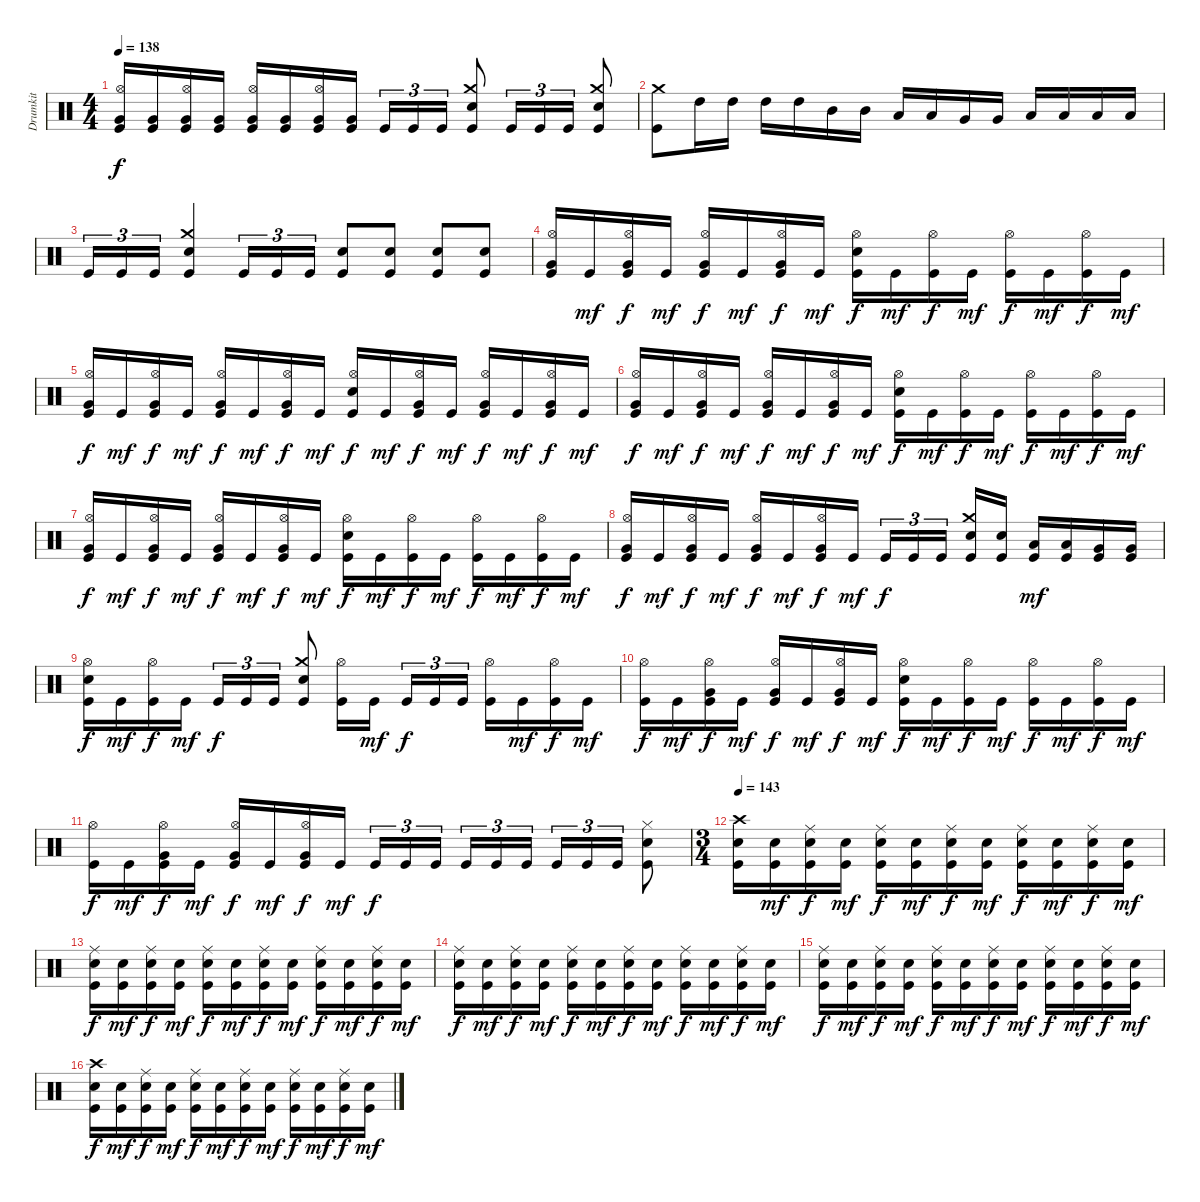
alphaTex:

\track ("Drumkit" "Drumkit") {instrument percussion}
\staff {score}
\articulation defaults
\ts (4 4)
\tempo 138
\clef neutral
\ks c
("Kick (hit)" "Hi-Hat (open)" "Very Low Tom (hit)").16{dy f} ("Kick (hit)" "Very Low Tom (hit)").16 ("Kick (hit)" "Hi-Hat (open)" "Very Low Tom (hit)").16 ("Kick (hit)" "Very Low Tom (hit)").16 ("Kick (hit)" "Very Low Tom (hit)" "Hi-Hat (open)").16 ("Kick (hit)" "Very Low Tom (hit)").16 ("Kick (hit)" "Very Low Tom (hit)" "Hi-Hat (open)").16 ("Kick (hit)" "Very Low Tom (hit)").16 "Kick (hit)".16{tu (3 2)} "Kick (hit)".16{tu (3 2)} "Kick (hit)".16{tu (3 2)} ("Crash medium (hit)" "Snare (hit) 2" "Kick (hit)").8 "Kick (hit)".16{tu (3 2)} "Kick (hit)".16{tu (3 2)} "Kick (hit)".16{tu (3 2)} ("Crash medium (hit)" "Snare (hit) 2" "Kick (hit)").8 |
("Crash medium (hit)" "Kick (hit)").8 "High Tom (hit)".16 "High Tom (hit)".16 "High Tom (hit)".16 "High Tom (hit)".16 "Mid Tom (hit)".16 "Mid Tom (hit)".16 "Low Tom (hit)".16 "Low Tom (hit)".16 "Very Low Tom (hit)".16 "Very Low Tom (hit)".16 "Low Floor Tom (hit)".16 "Low Floor Tom (hit)".16 "Low Floor Tom (hit)".16 "Low Floor Tom (hit)".16 |
"Kick (hit)".16{tu (3 2)} "Kick (hit)".16{tu (3 2)} "Kick (hit)".16{tu (3 2)} ("Crash medium (hit)" "Snare (hit) 2" "Kick (hit)").4 "Kick (hit)".16{tu (3 2)} "Kick (hit)".16{tu (3 2)} "Kick (hit)".16{tu (3 2)} ("Snare (hit) 2" "Kick (hit)").8 ("Snare (hit) 2" "Kick (hit)").8 ("Snare (hit) 2" "Kick (hit)").8 ("Snare (hit) 2" "Kick (hit)").8 |
("Kick (hit)" "Hi-Hat (open)" "Very Low Tom (hit)").16 "Kick (hit)".16{dy mf} ("Kick (hit)" "Hi-Hat (open)" "Very Low Tom (hit)").16{dy f} "Kick (hit)".16{dy mf} ("Kick (hit)" "Hi-Hat (open)" "Very Low Tom (hit)").16{dy f} "Kick (hit)".16{dy mf} ("Kick (hit)" "Hi-Hat (open)" "Very Low Tom (hit)").16{dy f} "Kick (hit)".16{dy mf} ("Kick (hit)" "Hi-Hat (open)" "Snare (hit) 2").16{dy f} "Kick (hit)".16{dy mf} ("Kick (hit)" "Hi-Hat (open)").16{dy f} "Kick (hit)".16{dy mf} ("Kick (hit)" "Hi-Hat (open)").16{dy f} "Kick (hit)".16{dy mf} ("Kick (hit)" "Hi-Hat (open)").16{dy f} "Kick (hit)".16{dy mf} |
("Kick (hit)" "Hi-Hat (open)" "Very Low Tom (hit)").16{dy f} "Kick (hit)".16{dy mf} ("Kick (hit)" "Hi-Hat (open)" "Very Low Tom (hit)").16{dy f} "Kick (hit)".16{dy mf} ("Kick (hit)" "Hi-Hat (open)" "Very Low Tom (hit)").16{dy f} "Kick (hit)".16{dy mf} ("Kick (hit)" "Hi-Hat (open)" "Very Low Tom (hit)").16{dy f} "Kick (hit)".16{dy mf} ("Kick (hit)" "Hi-Hat (open)" "Snare (hit) 2").16{dy f} "Kick (hit)".16{dy mf} ("Kick (hit)" "Hi-Hat (open)" "Very Low Tom (hit)").16{dy f} "Kick (hit)".16{dy mf} ("Kick (hit)" "Hi-Hat (open)" "Very Low Tom (hit)").16{dy f} "Kick (hit)".16{dy mf} ("Kick (hit)" "Hi-Hat (open)" "Very Low Tom (hit)").16{dy f} "Kick (hit)".16{dy mf} |
("Kick (hit)" "Hi-Hat (open)" "Very Low Tom (hit)").16{dy f} "Kick (hit)".16{dy mf} ("Kick (hit)" "Hi-Hat (open)" "Very Low Tom (hit)").16{dy f} "Kick (hit)".16{dy mf} ("Kick (hit)" "Hi-Hat (open)" "Very Low Tom (hit)").16{dy f} "Kick (hit)".16{dy mf} ("Kick (hit)" "Hi-Hat (open)" "Very Low Tom (hit)").16{dy f} "Kick (hit)".16{dy mf} ("Kick (hit)" "Hi-Hat (open)" "Snare (hit) 2").16{dy f} "Kick (hit)".16{dy mf} ("Kick (hit)" "Hi-Hat (open)").16{dy f} "Kick (hit)".16{dy mf} ("Kick (hit)" "Hi-Hat (open)").16{dy f} "Kick (hit)".16{dy mf} ("Kick (hit)" "Hi-Hat (open)").16{dy f} "Kick (hit)".16{dy mf} |
("Kick (hit)" "Hi-Hat (open)" "Very Low Tom (hit)").16{dy f} "Kick (hit)".16{dy mf} ("Kick (hit)" "Hi-Hat (open)" "Very Low Tom (hit)").16{dy f} "Kick (hit)".16{dy mf} ("Kick (hit)" "Hi-Hat (open)" "Very Low Tom (hit)").16{dy f} "Kick (hit)".16{dy mf} ("Kick (hit)" "Hi-Hat (open)" "Very Low Tom (hit)").16{dy f} "Kick (hit)".16{dy mf} ("Kick (hit)" "Hi-Hat (open)" "Snare (hit) 2").16{dy f} "Kick (hit)".16{dy mf} ("Kick (hit)" "Hi-Hat (open)").16{dy f} "Kick (hit)".16{dy mf} ("Kick (hit)" "Hi-Hat (open)").16{dy f} "Kick (hit)".16{dy mf} ("Kick (hit)" "Hi-Hat (open)").16{dy f} "Kick (hit)".16{dy mf} |
("Kick (hit)" "Hi-Hat (open)" "Very Low Tom (hit)").16{dy f} "Kick (hit)".16{dy mf} ("Kick (hit)" "Hi-Hat (open)" "Very Low Tom (hit)").16{dy f} "Kick (hit)".16{dy mf} ("Kick (hit)" "Hi-Hat (open)" "Very Low Tom (hit)").16{dy f} "Kick (hit)".16{dy mf} ("Kick (hit)" "Hi-Hat (open)" "Very Low Tom (hit)").16{dy f} "Kick (hit)".16{dy mf} "Kick (hit)".16{tu (3 2) dy f} "Kick (hit)".16{tu (3 2)} "Kick (hit)".16{tu (3 2)} ("Crash medium (hit)" "Snare (hit) 2" "Kick (hit)").16 ("Kick (hit)" "Snare (hit) 2").16 ("Kick (hit)" "Low Tom (hit)").16{dy mf} ("Kick (hit)" "Low Tom (hit)").16 ("Kick (hit)" "Very Low Tom (hit)").16 ("Very Low Tom (hit)" "Kick (hit)").16 |
("Kick (hit)" "Hi-Hat (open)" "Snare (hit) 2").16{dy f} "Kick (hit)".16{dy mf} ("Kick (hit)" "Hi-Hat (open)").16{dy f} "Kick (hit)".16{dy mf} "Kick (hit)".16{tu (3 2) dy f} "Kick (hit)".16{tu (3 2)} "Kick (hit)".16{tu (3 2)} ("Crash medium (hit)" "Snare (hit) 2" "Kick (hit)").8 ("Kick (hit)" "Hi-Hat (open)").16 "Kick (hit)".16{dy mf} "Kick (hit)".16{tu (3 2) dy f} "Kick (hit)".16{tu (3 2)} "Kick (hit)".16{tu (3 2)} ("Kick (hit)" "Hi-Hat (open)").16 "Kick (hit)".16{dy mf} ("Kick (hit)" "Hi-Hat (open)").16{dy f} "Kick (hit)".16{dy mf} |
("Kick (hit)" "Hi-Hat (open)").16{dy f} "Kick (hit)".16{dy mf} ("Kick (hit)" "Hi-Hat (open)" "Very Low Tom (hit)").16{dy f} "Kick (hit)".16{dy mf} ("Kick (hit)" "Hi-Hat (open)" "Very Low Tom (hit)").16{dy f} "Kick (hit)".16{dy mf} ("Kick (hit)" "Hi-Hat (open)" "Very Low Tom (hit)").16{dy f} "Kick (hit)".16{dy mf} ("Kick (hit)" "Hi-Hat (open)" "Snare (hit) 2").16{dy f} "Kick (hit)".16{dy mf} ("Kick (hit)" "Hi-Hat (open)").16{dy f} "Kick (hit)".16{dy mf} ("Kick (hit)" "Hi-Hat (open)").16{dy f} "Kick (hit)".16{dy mf} ("Kick (hit)" "Hi-Hat (open)").16{dy f} "Kick (hit)".16{dy mf} |
("Kick (hit)" "Hi-Hat (open)").16{dy f} "Kick (hit)".16{dy mf} ("Kick (hit)" "Hi-Hat (open)" "Very Low Tom (hit)").16{dy f} "Kick (hit)".16{dy mf} ("Kick (hit)" "Hi-Hat (open)" "Very Low Tom (hit)").16{dy f} "Kick (hit)".16{dy mf} ("Kick (hit)" "Very Low Tom (hit)" "Hi-Hat (open)").16{dy f} "Kick (hit)".16{dy mf} "Kick (hit)".16{tu (3 2) dy f} "Kick (hit)".16{tu (3 2)} "Kick (hit)".16{tu (3 2)} "Kick (hit)".16{tu (3 2)} "Kick (hit)".16{tu (3 2)} "Kick (hit)".16{tu (3 2)} "Kick (hit)".16{tu (3 2)} "Kick (hit)".16{tu (3 2)} "Kick (hit)".16{tu (3 2)} ("Kick (hit)" "Hi-Hat (closed)" "Snare (hit) 2").8 |
\ts (3 4)
\tempo 143
("Kick (hit)" "Snare (hit) 2" "Crash high (hit)").16 ("Snare (hit) 2" "Kick (hit)").16{dy mf} ("Kick (hit)" "Snare (hit) 2" "Ride (middle)").16{dy f} ("Snare (hit) 2" "Kick (hit)").16{dy mf} ("Kick (hit)" "Snare (hit) 2" "Ride (middle)").16{dy f} ("Snare (hit) 2" "Kick (hit)").16{dy mf} ("Kick (hit)" "Snare (hit) 2" "Ride (middle)").16{dy f} ("Snare (hit) 2" "Kick (hit)").16{dy mf} ("Kick (hit)" "Snare (hit) 2" "Ride (middle)").16{dy f} ("Snare (hit) 2" "Kick (hit)").16{dy mf} ("Kick (hit)" "Snare (hit) 2" "Ride (middle)").16{dy f} ("Snare (hit) 2" "Kick (hit)").16{dy mf} |
("Kick (hit)" "Snare (hit) 2" "Ride (middle)").16{dy f} ("Snare (hit) 2" "Kick (hit)").16{dy mf} ("Kick (hit)" "Snare (hit) 2" "Ride (middle)").16{dy f} ("Snare (hit) 2" "Kick (hit)").16{dy mf} ("Kick (hit)" "Snare (hit) 2" "Ride (middle)").16{dy f} ("Snare (hit) 2" "Kick (hit)").16{dy mf} ("Kick (hit)" "Snare (hit) 2" "Ride (middle)").16{dy f} ("Snare (hit) 2" "Kick (hit)").16{dy mf} ("Kick (hit)" "Snare (hit) 2" "Ride (middle)").16{dy f} ("Snare (hit) 2" "Kick (hit)").16{dy mf} ("Kick (hit)" "Snare (hit) 2" "Ride (middle)").16{dy f} ("Snare (hit) 2" "Kick (hit)").16{dy mf} |
("Kick (hit)" "Snare (hit) 2" "Ride (middle)").16{dy f} ("Snare (hit) 2" "Kick (hit)").16{dy mf} ("Kick (hit)" "Snare (hit) 2" "Ride (middle)").16{dy f} ("Snare (hit) 2" "Kick (hit)").16{dy mf} ("Kick (hit)" "Snare (hit) 2" "Ride (middle)").16{dy f} ("Snare (hit) 2" "Kick (hit)").16{dy mf} ("Kick (hit)" "Snare (hit) 2" "Ride (middle)").16{dy f} ("Snare (hit) 2" "Kick (hit)").16{dy mf} ("Kick (hit)" "Snare (hit) 2" "Ride (middle)").16{dy f} ("Snare (hit) 2" "Kick (hit)").16{dy mf} ("Kick (hit)" "Snare (hit) 2" "Ride (middle)").16{dy f} ("Snare (hit) 2" "Kick (hit)").16{dy mf} |
("Kick (hit)" "Snare (hit) 2" "Ride (middle)").16{dy f} ("Snare (hit) 2" "Kick (hit)").16{dy mf} ("Kick (hit)" "Snare (hit) 2" "Ride (middle)").16{dy f} ("Snare (hit) 2" "Kick (hit)").16{dy mf} ("Kick (hit)" "Snare (hit) 2" "Ride (middle)").16{dy f} ("Snare (hit) 2" "Kick (hit)").16{dy mf} ("Kick (hit)" "Snare (hit) 2" "Ride (middle)").16{dy f} ("Snare (hit) 2" "Kick (hit)").16{dy mf} ("Kick (hit)" "Snare (hit) 2" "Ride (middle)").16{dy f} ("Snare (hit) 2" "Kick (hit)").16{dy mf} ("Kick (hit)" "Snare (hit) 2" "Ride (middle)").16{dy f} ("Snare (hit) 2" "Kick (hit)").16{dy mf} |
("Kick (hit)" "Snare (hit) 2" "Crash high (hit)").16{dy f} ("Snare (hit) 2" "Kick (hit)").16{dy mf} ("Kick (hit)" "Snare (hit) 2" "Ride (middle)").16{dy f} ("Snare (hit) 2" "Kick (hit)").16{dy mf} ("Kick (hit)" "Snare (hit) 2" "Ride (middle)").16{dy f} ("Snare (hit) 2" "Kick (hit)").16{dy mf} ("Kick (hit)" "Snare (hit) 2" "Ride (middle)").16{dy f} ("Snare (hit) 2" "Kick (hit)").16{dy mf} ("Kick (hit)" "Snare (hit) 2" "Ride (middle)").16{dy f} ("Snare (hit) 2" "Kick (hit)").16{dy mf} ("Kick (hit)" "Snare (hit) 2" "Ride (middle)").16{dy f} ("Snare (hit) 2" "Kick (hit)").16{dy mf}
